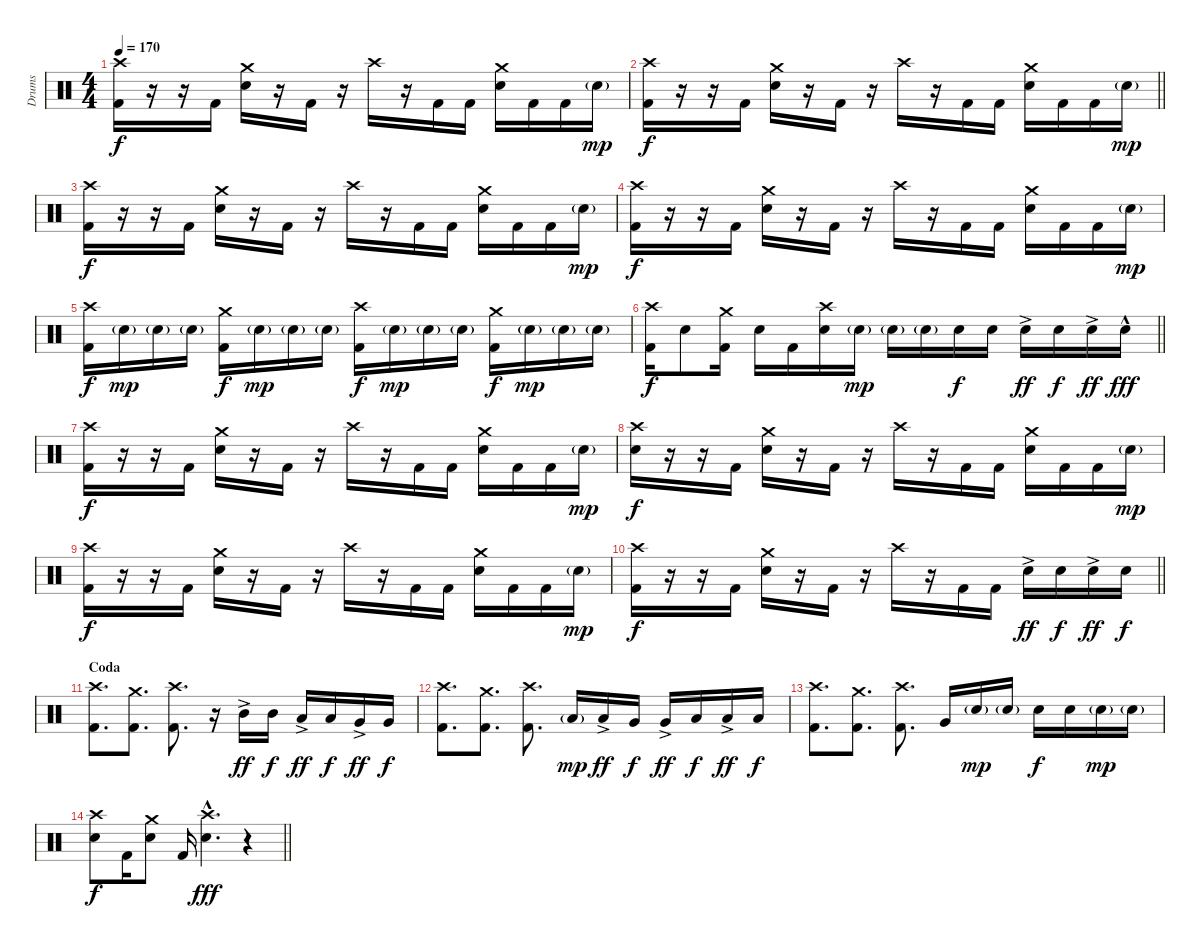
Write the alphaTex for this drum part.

\track ("Drums" "Drums") {instrument percussion}
\staff {score}
\articulation defaults
\ts (4 4)
\tempo 170
\clef neutral
\ks c
("Crash high (hit)" "Kick (hit) 2").16{dy f} r.16 r.16 "Kick (hit) 2".16 ("Crash medium (hit)" "Snare (hit) 2").16 r.16 "Kick (hit) 2".16 r.16 "Crash high (hit)".16 r.16 "Kick (hit) 2".16 "Kick (hit) 2".16 ("Crash medium (hit)" "Snare (hit) 2").16 "Kick (hit) 2".16 "Kick (hit) 2".16 "Snare (hit) 2"{g}.16{dy mp} |
\barLineRight lightlight
("Crash high (hit)" "Kick (hit) 2").16{dy f} r.16 r.16 "Kick (hit) 2".16 ("Crash medium (hit)" "Snare (hit) 2").16 r.16 "Kick (hit) 2".16 r.16 "Crash high (hit)".16 r.16 "Kick (hit) 2".16 "Kick (hit) 2".16 ("Crash medium (hit)" "Snare (hit) 2").16 "Kick (hit) 2".16 "Kick (hit) 2".16 "Snare (hit) 2"{g}.16{dy mp} |
\section ("" "")
("Crash high (hit)" "Kick (hit) 2").16{dy f} r.16 r.16 "Kick (hit) 2".16 ("Crash medium (hit)" "Snare (hit) 2").16 r.16 "Kick (hit) 2".16 r.16 "Crash high (hit)".16 r.16 "Kick (hit) 2".16 "Kick (hit) 2".16 ("Crash medium (hit)" "Snare (hit) 2").16 "Kick (hit) 2".16 "Kick (hit) 2".16 "Snare (hit) 2"{g}.16{dy mp} |
("Crash high (hit)" "Kick (hit) 2").16{dy f} r.16 r.16 "Kick (hit) 2".16 ("Crash medium (hit)" "Snare (hit) 2").16 r.16 "Kick (hit) 2".16 r.16 "Crash high (hit)".16 r.16 "Kick (hit) 2".16 "Kick (hit) 2".16 ("Crash medium (hit)" "Snare (hit) 2").16 "Kick (hit) 2".16 "Kick (hit) 2".16 "Snare (hit) 2"{g}.16{dy mp} |
("Crash high (hit)" "Kick (hit) 2").16{dy f} "Electric Snare (hit)"{g}.16{dy mp} "Electric Snare (hit)"{g}.16 "Electric Snare (hit)"{g}.16 ("Crash medium (hit)" "Kick (hit) 2").16{dy f} "Electric Snare (hit)"{g}.16{dy mp} "Electric Snare (hit)"{g}.16 "Electric Snare (hit)"{g}.16 ("Crash high (hit)" "Kick (hit) 2").16{dy f} "Electric Snare (hit)"{g}.16{dy mp} "Electric Snare (hit)"{g}.16 "Electric Snare (hit)"{g}.16 ("Crash medium (hit)" "Kick (hit) 2").16{dy f} "Electric Snare (hit)"{g}.16{dy mp} "Electric Snare (hit)"{g}.16 "Electric Snare (hit)"{g}.16 |
\barLineRight lightlight
("Crash high (hit)" "Kick (hit) 2").16{dy f} "Snare (hit) 2".8 ("Crash medium (hit)" "Kick (hit) 2").16 "Snare (hit) 2".16 "Kick (hit) 2".16 ("Crash high (hit)" "Snare (hit) 2").16 "Electric Snare (hit)"{g}.16{dy mp} "Electric Snare (hit)"{g}.16 "Electric Snare (hit)"{g}.16 "Snare (hit) 2".16{dy f} "Snare (hit) 2".16 "Snare (hit) 2"{ac}.16{dy ff} "Snare (hit) 2".16{dy f} "Snare (hit) 2"{ac}.16{dy ff} "Snare (hit) 2"{hac}.16{dy fff} |
\section ("" "")
("Crash high (hit)" "Kick (hit) 2").16{dy f} r.16 r.16 "Kick (hit) 2".16 ("Crash medium (hit)" "Snare (hit) 2").16 r.16 "Kick (hit) 2".16 r.16 "Crash high (hit)".16 r.16 "Kick (hit) 2".16 "Kick (hit) 2".16 ("Crash medium (hit)" "Snare (hit) 2").16 "Kick (hit) 2".16 "Kick (hit) 2".16 "Snare (hit) 2"{g}.16{dy mp} |
("Crash high (hit)" "Snare (hit) 2").16{dy f} r.16 r.16 "Kick (hit) 2".16 ("Crash medium (hit)" "Snare (hit) 2").16 r.16 "Kick (hit) 2".16 r.16 "Crash high (hit)".16 r.16 "Kick (hit) 2".16 "Kick (hit) 2".16 ("Crash medium (hit)" "Snare (hit) 2").16 "Kick (hit) 2".16 "Kick (hit) 2".16 "Snare (hit) 2"{g}.16{dy mp} |
("Crash high (hit)" "Kick (hit) 2").16{dy f} r.16 r.16 "Kick (hit) 2".16 ("Crash medium (hit)" "Snare (hit) 2").16 r.16 "Kick (hit) 2".16 r.16 "Crash high (hit)".16 r.16 "Kick (hit) 2".16 "Kick (hit) 2".16 ("Crash medium (hit)" "Snare (hit) 2").16 "Kick (hit) 2".16 "Kick (hit) 2".16 "Snare (hit) 2"{g}.16{dy mp} |
\barLineRight lightlight
("Crash high (hit)" "Kick (hit) 2").16{dy f} r.16 r.16 "Kick (hit) 2".16 ("Crash medium (hit)" "Snare (hit) 2").16 r.16 "Kick (hit) 2".16 r.16 "Crash high (hit)".16 r.16 "Kick (hit) 2".16 "Kick (hit) 2".16 "Snare (hit) 2"{ac}.16{dy ff} "Snare (hit) 2".16{dy f} "Snare (hit) 2"{ac}.16{dy ff} "Snare (hit) 2".16{dy f} |
\section ("" "Coda")
("Crash high (hit)" "Kick (hit) 2").8{d} ("Crash medium (hit)" "Kick (hit) 2").8{d} ("Crash high (hit)" "Kick (hit) 2").8{d} r.16 "Mid Tom (hit)"{ac}.16{dy ff} "Mid Tom (hit)".16{dy f} "Low Tom (hit)"{ac}.16{dy ff} "Low Tom (hit)".16{dy f} "Very Low Tom (hit)"{ac}.16{dy ff} "Very Low Tom (hit)".16{dy f} |
("Crash high (hit)" "Kick (hit) 2").8{d} ("Crash medium (hit)" "Kick (hit) 2").8{d} ("Crash high (hit)" "Kick (hit) 2").8{d} "Low Tom (hit)"{g}.16{dy mp} "Low Tom (hit)"{ac}.16{dy ff} "Very Low Tom (hit)".16{dy f} "Very Low Tom (hit)"{ac}.16{dy ff} "Low Floor Tom (hit)".16{dy f} "Low Floor Tom (hit)"{ac}.16{dy ff} "Low Floor Tom (hit)".16{dy f} |
("Crash high (hit)" "Kick (hit) 2").8{d} ("Crash medium (hit)" "Kick (hit) 2").8{d} ("Crash high (hit)" "Kick (hit) 2").8{d} "Very Low Tom (hit)".16 "Electric Snare (hit)"{g}.16{dy mp} "Electric Snare (hit)"{g}.16 "Snare (hit) 2".16{dy f} "Snare (hit) 2".16 "Electric Snare (hit)"{g}.16{dy mp} "Electric Snare (hit)"{g}.16 |
\barLineRight lightlight
("Crash high (hit)" "Snare (hit) 2").8{dy f} "Kick (hit) 2".16 ("Crash medium (hit)" "Snare (hit) 2").8 "Kick (hit) 2".16 ("Crash high (hit)"{hac} "Snare (hit) 2"{hac}).4{d dy fff} r.4
